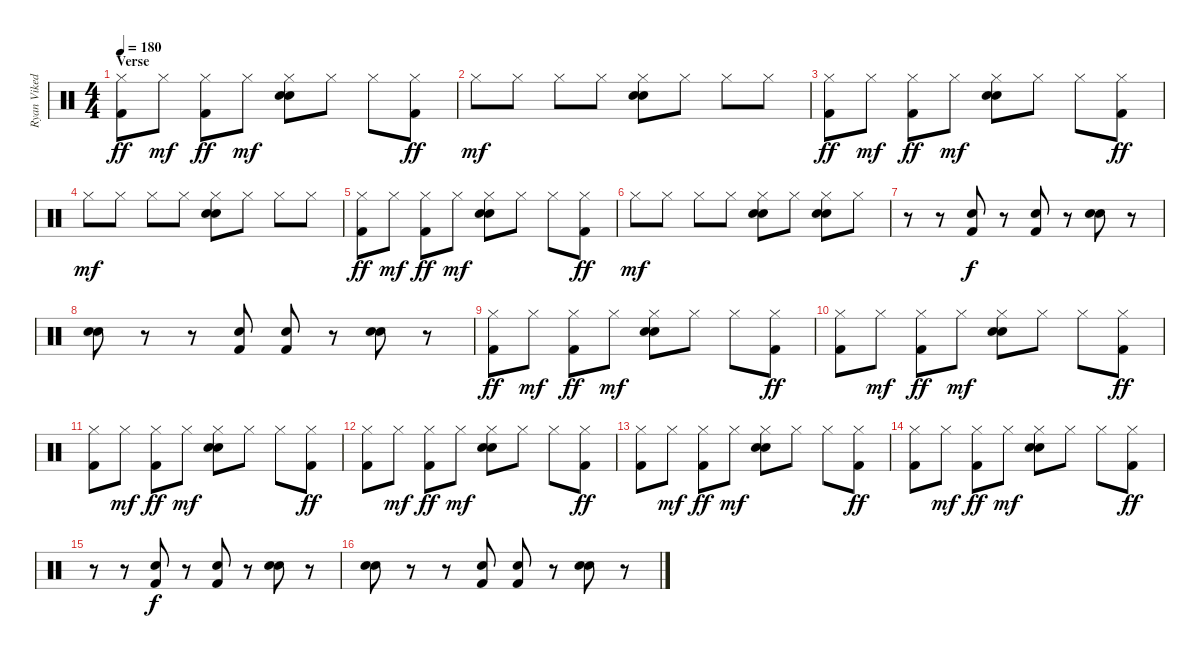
\track ("Ryan Vikedal(drums)" "Ryan Viked") {instrument percussion}
\staff {score}
\articulation defaults
\ts (4 4)
\section ("" "Verse")
\tempo 180
\clef neutral
\ks c
("Hi-Hat (closed)" "Kick (hit) 2").8{dy ff} "Hi-Hat (closed)".8{dy mf} ("Hi-Hat (closed)" "Kick (hit) 2").8{dy ff} "Hi-Hat (closed)".8{dy mf} ("Hi-Hat (closed)" "Electric Snare (hit)" "Electric Snare (hit)").8 "Hi-Hat (closed)".8 "Hi-Hat (closed)".8 ("Hi-Hat (closed)" "Kick (hit) 2").8{dy ff} |
"Hi-Hat (closed)".8{dy mf} "Hi-Hat (closed)".8 "Hi-Hat (closed)".8 "Hi-Hat (closed)".8 ("Hi-Hat (closed)" "Electric Snare (hit)" "Electric Snare (hit)").8 "Hi-Hat (closed)".8 "Hi-Hat (closed)".8 "Hi-Hat (closed)".8 |
("Hi-Hat (closed)" "Kick (hit) 2").8{dy ff} "Hi-Hat (closed)".8{dy mf} ("Hi-Hat (closed)" "Kick (hit) 2").8{dy ff} "Hi-Hat (closed)".8{dy mf} ("Hi-Hat (closed)" "Electric Snare (hit)" "Electric Snare (hit)").8 "Hi-Hat (closed)".8 "Hi-Hat (closed)".8 ("Hi-Hat (closed)" "Kick (hit) 2").8{dy ff} |
"Hi-Hat (closed)".8{dy mf} "Hi-Hat (closed)".8 "Hi-Hat (closed)".8 "Hi-Hat (closed)".8 ("Hi-Hat (closed)" "Electric Snare (hit)" "Electric Snare (hit)").8 "Hi-Hat (closed)".8 "Hi-Hat (closed)".8 "Hi-Hat (closed)".8 |
("Hi-Hat (closed)" "Kick (hit) 2").8{dy ff} "Hi-Hat (closed)".8{dy mf} ("Hi-Hat (closed)" "Kick (hit) 2").8{dy ff} "Hi-Hat (closed)".8{dy mf} ("Hi-Hat (closed)" "Electric Snare (hit)" "Electric Snare (hit)").8 "Hi-Hat (closed)".8 "Hi-Hat (closed)".8 ("Hi-Hat (closed)" "Kick (hit) 2").8{dy ff} |
"Hi-Hat (closed)".8{dy mf} "Hi-Hat (closed)".8 "Hi-Hat (closed)".8 "Hi-Hat (closed)".8 ("Hi-Hat (closed)" "Electric Snare (hit)" "Electric Snare (hit)").8 "Hi-Hat (closed)".8 ("Hi-Hat (closed)" "Electric Snare (hit)" "Electric Snare (hit)").8 "Hi-Hat (closed)".8 |
r.8 r.8 ("Electric Snare (hit)" "Kick (hit) 2").8{dy f} r.8 ("Electric Snare (hit)" "Kick (hit) 2").8 r.8 ("Electric Snare (hit)" "Electric Snare (hit)").8 r.8 |
("Electric Snare (hit)" "Electric Snare (hit)").8 r.8 r.8 ("Electric Snare (hit)" "Kick (hit) 2").8 ("Electric Snare (hit)" "Kick (hit) 2").8 r.8 ("Electric Snare (hit)" "Electric Snare (hit)").8 r.8 |
("Hi-Hat (closed)" "Kick (hit) 2").8{dy ff} "Hi-Hat (closed)".8{dy mf} ("Hi-Hat (closed)" "Kick (hit) 2").8{dy ff} "Hi-Hat (closed)".8{dy mf} ("Hi-Hat (closed)" "Electric Snare (hit)" "Electric Snare (hit)").8 "Hi-Hat (closed)".8 "Hi-Hat (closed)".8 ("Hi-Hat (closed)" "Kick (hit) 2").8{dy ff} |
("Hi-Hat (closed)" "Kick (hit) 2").8 "Hi-Hat (closed)".8{dy mf} ("Hi-Hat (closed)" "Kick (hit) 2").8{dy ff} "Hi-Hat (closed)".8{dy mf} ("Hi-Hat (closed)" "Electric Snare (hit)" "Electric Snare (hit)").8 "Hi-Hat (closed)".8 "Hi-Hat (closed)".8 ("Hi-Hat (closed)" "Kick (hit) 2").8{dy ff} |
("Hi-Hat (closed)" "Kick (hit) 2").8 "Hi-Hat (closed)".8{dy mf} ("Hi-Hat (closed)" "Kick (hit) 2").8{dy ff} "Hi-Hat (closed)".8{dy mf} ("Hi-Hat (closed)" "Electric Snare (hit)" "Electric Snare (hit)").8 "Hi-Hat (closed)".8 "Hi-Hat (closed)".8 ("Hi-Hat (closed)" "Kick (hit) 2").8{dy ff} |
("Hi-Hat (closed)" "Kick (hit) 2").8 "Hi-Hat (closed)".8{dy mf} ("Hi-Hat (closed)" "Kick (hit) 2").8{dy ff} "Hi-Hat (closed)".8{dy mf} ("Hi-Hat (closed)" "Electric Snare (hit)" "Electric Snare (hit)").8 "Hi-Hat (closed)".8 "Hi-Hat (closed)".8 ("Hi-Hat (closed)" "Kick (hit) 2").8{dy ff} |
("Hi-Hat (closed)" "Kick (hit) 2").8 "Hi-Hat (closed)".8{dy mf} ("Hi-Hat (closed)" "Kick (hit) 2").8{dy ff} "Hi-Hat (closed)".8{dy mf} ("Hi-Hat (closed)" "Electric Snare (hit)" "Electric Snare (hit)").8 "Hi-Hat (closed)".8 "Hi-Hat (closed)".8 ("Hi-Hat (closed)" "Kick (hit) 2").8{dy ff} |
("Hi-Hat (closed)" "Kick (hit) 2").8 "Hi-Hat (closed)".8{dy mf} ("Hi-Hat (closed)" "Kick (hit) 2").8{dy ff} "Hi-Hat (closed)".8{dy mf} ("Hi-Hat (closed)" "Electric Snare (hit)" "Electric Snare (hit)").8 "Hi-Hat (closed)".8 "Hi-Hat (closed)".8 ("Hi-Hat (closed)" "Kick (hit) 2").8{dy ff} |
r.8 r.8 ("Electric Snare (hit)" "Kick (hit) 2").8{dy f} r.8 ("Electric Snare (hit)" "Kick (hit) 2").8 r.8 ("Electric Snare (hit)" "Electric Snare (hit)").8 r.8 |
("Electric Snare (hit)" "Electric Snare (hit)").8 r.8 r.8 ("Electric Snare (hit)" "Kick (hit) 2").8 ("Electric Snare (hit)" "Kick (hit) 2").8 r.8 ("Electric Snare (hit)" "Electric Snare (hit)").8 r.8
